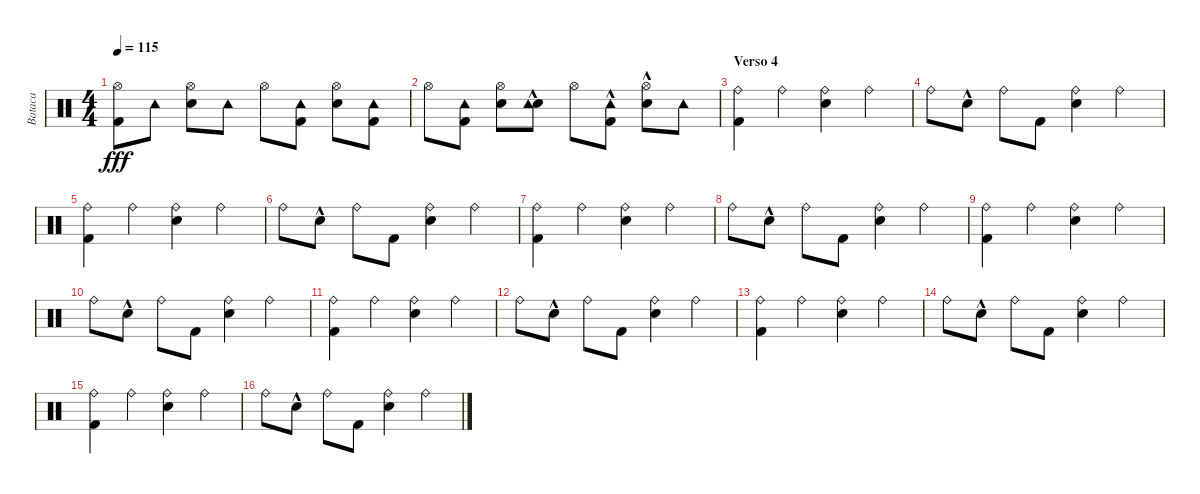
\track ("Bataca" "Bataca") {instrument percussion}
\staff {score}
\articulation defaults
\ts (4 4)
\tempo 115
\clef neutral
\ks c
("Kick (hit) 2" "Hi-Hat (open)").8{dy fff} "Tambourine (hit)".8 ("Snare (hit) 2" "Hi-Hat (open)").8 "Tambourine (hit)".8 "Hi-Hat (open)".8 ("Kick (hit) 2" "Tambourine (hit)").8 ("Snare (hit) 2" "Hi-Hat (open)").8 ("Kick (hit) 2" "Tambourine (hit)").8 |
"Hi-Hat (open)".8 ("Kick (hit) 2" "Tambourine (hit)").8 ("Snare (hit) 2" "Hi-Hat (open)").8 ("Snare (hit) 2"{hac} "Tambourine (hit)").8 "Hi-Hat (open)".8 ("Kick (hit) 2"{hac} "Tambourine (hit)").8 ("Snare (hit) 2"{hac} "Hi-Hat (open)").8 "Tambourine (hit)".8 |
\section ("" "Verso 4")
("Kick (hit) 2" "Ride (bell)").4 "Ride (bell)".4 ("Snare (hit) 2" "Ride (bell)").4 "Ride (bell)".4 |
"Ride (bell)".8 "Snare (hit) 2"{hac}.8 "Ride (bell)".8 "Kick (hit) 2".8 ("Snare (hit) 2" "Ride (bell)").4 "Ride (bell)".4 |
("Kick (hit) 2" "Ride (bell)").4 "Ride (bell)".4 ("Snare (hit) 2" "Ride (bell)").4 "Ride (bell)".4 |
"Ride (bell)".8 "Snare (hit) 2"{hac}.8 "Ride (bell)".8 "Kick (hit) 2".8 ("Snare (hit) 2" "Ride (bell)").4 "Ride (bell)".4 |
("Kick (hit) 2" "Ride (bell)").4 "Ride (bell)".4 ("Snare (hit) 2" "Ride (bell)").4 "Ride (bell)".4 |
"Ride (bell)".8 "Snare (hit) 2"{hac}.8 "Ride (bell)".8 "Kick (hit) 2".8 ("Snare (hit) 2" "Ride (bell)").4 "Ride (bell)".4 |
("Kick (hit) 2" "Ride (bell)").4 "Ride (bell)".4 ("Snare (hit) 2" "Ride (bell)").4 "Ride (bell)".4 |
"Ride (bell)".8 "Snare (hit) 2"{hac}.8 "Ride (bell)".8 "Kick (hit) 2".8 ("Snare (hit) 2" "Ride (bell)").4 "Ride (bell)".4 |
("Kick (hit) 2" "Ride (bell)").4 "Ride (bell)".4 ("Snare (hit) 2" "Ride (bell)").4 "Ride (bell)".4 |
"Ride (bell)".8 "Snare (hit) 2"{hac}.8 "Ride (bell)".8 "Kick (hit) 2".8 ("Snare (hit) 2" "Ride (bell)").4 "Ride (bell)".4 |
("Kick (hit) 2" "Ride (bell)").4 "Ride (bell)".4 ("Snare (hit) 2" "Ride (bell)").4 "Ride (bell)".4 |
"Ride (bell)".8 "Snare (hit) 2"{hac}.8 "Ride (bell)".8 "Kick (hit) 2".8 ("Snare (hit) 2" "Ride (bell)").4 "Ride (bell)".4 |
("Kick (hit) 2" "Ride (bell)").4 "Ride (bell)".4 ("Snare (hit) 2" "Ride (bell)").4 "Ride (bell)".4 |
"Ride (bell)".8 "Snare (hit) 2"{hac}.8 "Ride (bell)".8 "Kick (hit) 2".8 ("Snare (hit) 2" "Ride (bell)").4 "Ride (bell)".4
